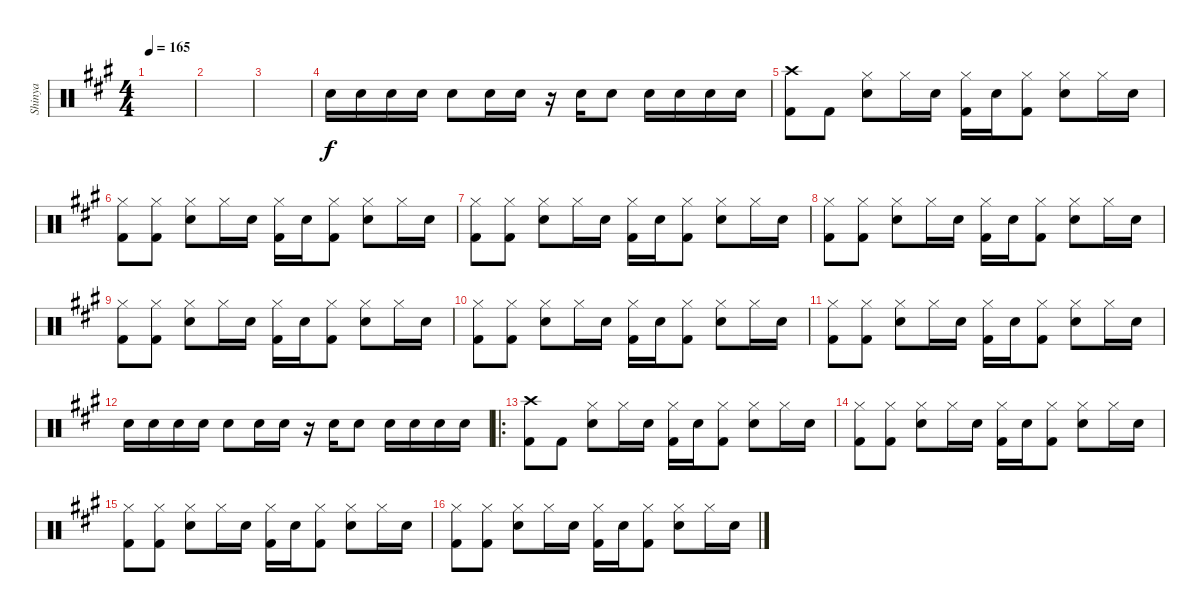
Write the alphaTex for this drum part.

\track ("Shinya" "Shinya") {instrument percussion}
\staff {score}
\articulation defaults
\ts (4 4)
\tempo 165
\clef neutral
\ks a
|
|
|
"Snare (hit) 2".16 "Snare (hit) 2".16 "Snare (hit) 2".16 "Snare (hit) 2".16 "Snare (hit) 2".8 "Snare (hit) 2".16 "Snare (hit) 2".16 r.16 "Snare (hit) 2".16 "Snare (hit) 2".8 "Snare (hit) 2".16 "Snare (hit) 2".16 "Snare (hit) 2".16 "Snare (hit) 2".16 |
("Crash high (hit)" "Kick (hit) 2").8 "Kick (hit) 2".8 ("Hi-Hat (closed)" "Snare (hit) 2").8 "Hi-Hat (closed)".16 "Snare (hit) 2".16 ("Hi-Hat (closed)" "Kick (hit) 2").16 "Snare (hit) 2".16 ("Hi-Hat (closed)" "Kick (hit) 2").8 ("Hi-Hat (closed)" "Snare (hit) 2").8 "Hi-Hat (closed)".16 "Snare (hit) 2".16 |
("Hi-Hat (closed)" "Kick (hit) 2").8 ("Hi-Hat (closed)" "Kick (hit) 2").8 ("Hi-Hat (closed)" "Snare (hit) 2").8 "Hi-Hat (closed)".16 "Snare (hit) 2".16 ("Hi-Hat (closed)" "Kick (hit) 2").16 "Snare (hit) 2".16 ("Hi-Hat (closed)" "Kick (hit) 2").8 ("Hi-Hat (closed)" "Snare (hit) 2").8 "Hi-Hat (closed)".16 "Snare (hit) 2".16 |
("Hi-Hat (closed)" "Kick (hit) 2").8 ("Hi-Hat (closed)" "Kick (hit) 2").8 ("Hi-Hat (closed)" "Snare (hit) 2").8 "Hi-Hat (closed)".16 "Snare (hit) 2".16 ("Hi-Hat (closed)" "Kick (hit) 2").16 "Snare (hit) 2".16 ("Hi-Hat (closed)" "Kick (hit) 2").8 ("Hi-Hat (closed)" "Snare (hit) 2").8 "Hi-Hat (closed)".16 "Snare (hit) 2".16 |
("Hi-Hat (closed)" "Kick (hit) 2").8 ("Hi-Hat (closed)" "Kick (hit) 2").8 ("Hi-Hat (closed)" "Snare (hit) 2").8 "Hi-Hat (closed)".16 "Snare (hit) 2".16 ("Hi-Hat (closed)" "Kick (hit) 2").16 "Snare (hit) 2".16 ("Hi-Hat (closed)" "Kick (hit) 2").8 ("Hi-Hat (closed)" "Snare (hit) 2").8 "Hi-Hat (closed)".16 "Snare (hit) 2".16 |
("Hi-Hat (closed)" "Kick (hit) 2").8 ("Hi-Hat (closed)" "Kick (hit) 2").8 ("Hi-Hat (closed)" "Snare (hit) 2").8 "Hi-Hat (closed)".16 "Snare (hit) 2".16 ("Hi-Hat (closed)" "Kick (hit) 2").16 "Snare (hit) 2".16 ("Hi-Hat (closed)" "Kick (hit) 2").8 ("Hi-Hat (closed)" "Snare (hit) 2").8 "Hi-Hat (closed)".16 "Snare (hit) 2".16 |
("Hi-Hat (closed)" "Kick (hit) 2").8 ("Hi-Hat (closed)" "Kick (hit) 2").8 ("Hi-Hat (closed)" "Snare (hit) 2").8 "Hi-Hat (closed)".16 "Snare (hit) 2".16 ("Hi-Hat (closed)" "Kick (hit) 2").16 "Snare (hit) 2".16 ("Hi-Hat (closed)" "Kick (hit) 2").8 ("Hi-Hat (closed)" "Snare (hit) 2").8 "Hi-Hat (closed)".16 "Snare (hit) 2".16 |
("Hi-Hat (closed)" "Kick (hit) 2").8 ("Hi-Hat (closed)" "Kick (hit) 2").8 ("Hi-Hat (closed)" "Snare (hit) 2").8 "Hi-Hat (closed)".16 "Snare (hit) 2".16 ("Hi-Hat (closed)" "Kick (hit) 2").16 "Snare (hit) 2".16 ("Hi-Hat (closed)" "Kick (hit) 2").8 ("Hi-Hat (closed)" "Snare (hit) 2").8 "Hi-Hat (closed)".16 "Snare (hit) 2".16 |
"Snare (hit) 2".16 "Snare (hit) 2".16 "Snare (hit) 2".16 "Snare (hit) 2".16 "Snare (hit) 2".8 "Snare (hit) 2".16 "Snare (hit) 2".16 r.16 "Snare (hit) 2".16 "Snare (hit) 2".8 "Snare (hit) 2".16 "Snare (hit) 2".16 "Snare (hit) 2".16 "Snare (hit) 2".16 |
\ro
("Crash high (hit)" "Kick (hit) 2").8 "Kick (hit) 2".8 ("Hi-Hat (closed)" "Snare (hit) 2").8 "Hi-Hat (closed)".16 "Snare (hit) 2".16 ("Hi-Hat (closed)" "Kick (hit) 2").16 "Snare (hit) 2".16 ("Hi-Hat (closed)" "Kick (hit) 2").8 ("Hi-Hat (closed)" "Snare (hit) 2").8 "Hi-Hat (closed)".16 "Snare (hit) 2".16 |
("Hi-Hat (closed)" "Kick (hit) 2").8 ("Hi-Hat (closed)" "Kick (hit) 2").8 ("Hi-Hat (closed)" "Snare (hit) 2").8 "Hi-Hat (closed)".16 "Snare (hit) 2".16 ("Hi-Hat (closed)" "Kick (hit) 2").16 "Snare (hit) 2".16 ("Hi-Hat (closed)" "Kick (hit) 2").8 ("Hi-Hat (closed)" "Snare (hit) 2").8 "Hi-Hat (closed)".16 "Snare (hit) 2".16 |
("Hi-Hat (closed)" "Kick (hit) 2").8 ("Hi-Hat (closed)" "Kick (hit) 2").8 ("Hi-Hat (closed)" "Snare (hit) 2").8 "Hi-Hat (closed)".16 "Snare (hit) 2".16 ("Hi-Hat (closed)" "Kick (hit) 2").16 "Snare (hit) 2".16 ("Hi-Hat (closed)" "Kick (hit) 2").8 ("Hi-Hat (closed)" "Snare (hit) 2").8 "Hi-Hat (closed)".16 "Snare (hit) 2".16 |
("Hi-Hat (closed)" "Kick (hit) 2").8 ("Hi-Hat (closed)" "Kick (hit) 2").8 ("Hi-Hat (closed)" "Snare (hit) 2").8 "Hi-Hat (closed)".16 "Snare (hit) 2".16 ("Hi-Hat (closed)" "Kick (hit) 2").16 "Snare (hit) 2".16 ("Hi-Hat (closed)" "Kick (hit) 2").8 ("Hi-Hat (closed)" "Snare (hit) 2").8 "Hi-Hat (closed)".16 "Snare (hit) 2".16
